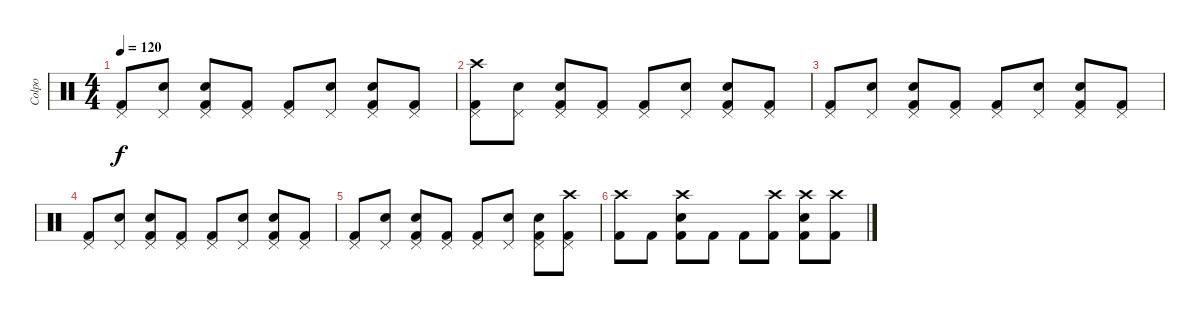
\track ("Colpo" "Colpo") {instrument percussion}
\staff {score}
\articulation defaults
\ts (4 4)
\tempo 120
\clef neutral
\ks c
("Pedal Hi-Hat (hit)" "Kick (hit) 2").8{dy f} ("Pedal Hi-Hat (hit)" "Snare (hit)").8 ("Pedal Hi-Hat (hit)" "Snare (hit) 2" "Kick (hit) 2").8 ("Pedal Hi-Hat (hit)" "Kick (hit) 2").8 ("Pedal Hi-Hat (hit)" "Kick (hit) 2").8 ("Pedal Hi-Hat (hit)" "Snare (hit)").8 ("Pedal Hi-Hat (hit)" "Snare (hit) 2" "Kick (hit) 2").8 ("Pedal Hi-Hat (hit)" "Kick (hit) 2").8 |
("Crash high (hit)" "Pedal Hi-Hat (hit)" "Kick (hit) 2").8 ("Pedal Hi-Hat (hit)" "Snare (hit)").8 ("Pedal Hi-Hat (hit)" "Snare (hit) 2" "Kick (hit) 2").8 ("Pedal Hi-Hat (hit)" "Kick (hit) 2").8 ("Pedal Hi-Hat (hit)" "Kick (hit) 2").8 ("Pedal Hi-Hat (hit)" "Snare (hit)").8 ("Pedal Hi-Hat (hit)" "Snare (hit) 2" "Kick (hit) 2").8 ("Pedal Hi-Hat (hit)" "Kick (hit) 2").8 |
("Pedal Hi-Hat (hit)" "Kick (hit) 2").8 ("Pedal Hi-Hat (hit)" "Snare (hit)").8 ("Pedal Hi-Hat (hit)" "Snare (hit) 2" "Kick (hit) 2").8 ("Pedal Hi-Hat (hit)" "Kick (hit) 2").8 ("Pedal Hi-Hat (hit)" "Kick (hit) 2").8 ("Pedal Hi-Hat (hit)" "Snare (hit)").8 ("Pedal Hi-Hat (hit)" "Snare (hit) 2" "Kick (hit) 2").8 ("Pedal Hi-Hat (hit)" "Kick (hit) 2").8 |
("Pedal Hi-Hat (hit)" "Kick (hit) 2").8 ("Pedal Hi-Hat (hit)" "Snare (hit)").8 ("Pedal Hi-Hat (hit)" "Snare (hit) 2" "Kick (hit) 2").8 ("Pedal Hi-Hat (hit)" "Kick (hit) 2").8 ("Pedal Hi-Hat (hit)" "Kick (hit) 2").8 ("Pedal Hi-Hat (hit)" "Snare (hit)").8 ("Pedal Hi-Hat (hit)" "Snare (hit) 2" "Kick (hit) 2").8 ("Pedal Hi-Hat (hit)" "Kick (hit) 2").8 |
("Pedal Hi-Hat (hit)" "Kick (hit) 2").8 ("Pedal Hi-Hat (hit)" "Snare (hit)").8 ("Pedal Hi-Hat (hit)" "Snare (hit) 2" "Kick (hit) 2").8 ("Pedal Hi-Hat (hit)" "Kick (hit) 2").8 ("Pedal Hi-Hat (hit)" "Kick (hit) 2").8 ("Pedal Hi-Hat (hit)" "Snare (hit)").8 ("Pedal Hi-Hat (hit)" "Snare (hit) 2" "Kick (hit) 2").8 ("Crash high (hit)" "Pedal Hi-Hat (hit)" "Kick (hit) 2").8 |
("Kick (hit) 2" "Crash high (hit)").8 "Kick (hit) 2".8 ("Kick (hit) 2" "Snare (hit) 2" "Crash high (hit)").8 "Kick (hit) 2".8 "Kick (hit) 2".8 ("Kick (hit) 2" "Crash high (hit)").8 ("Kick (hit) 2" "Snare (hit) 2" "Crash high (hit)").8 ("Kick (hit) 2" "Crash high (hit)").8
